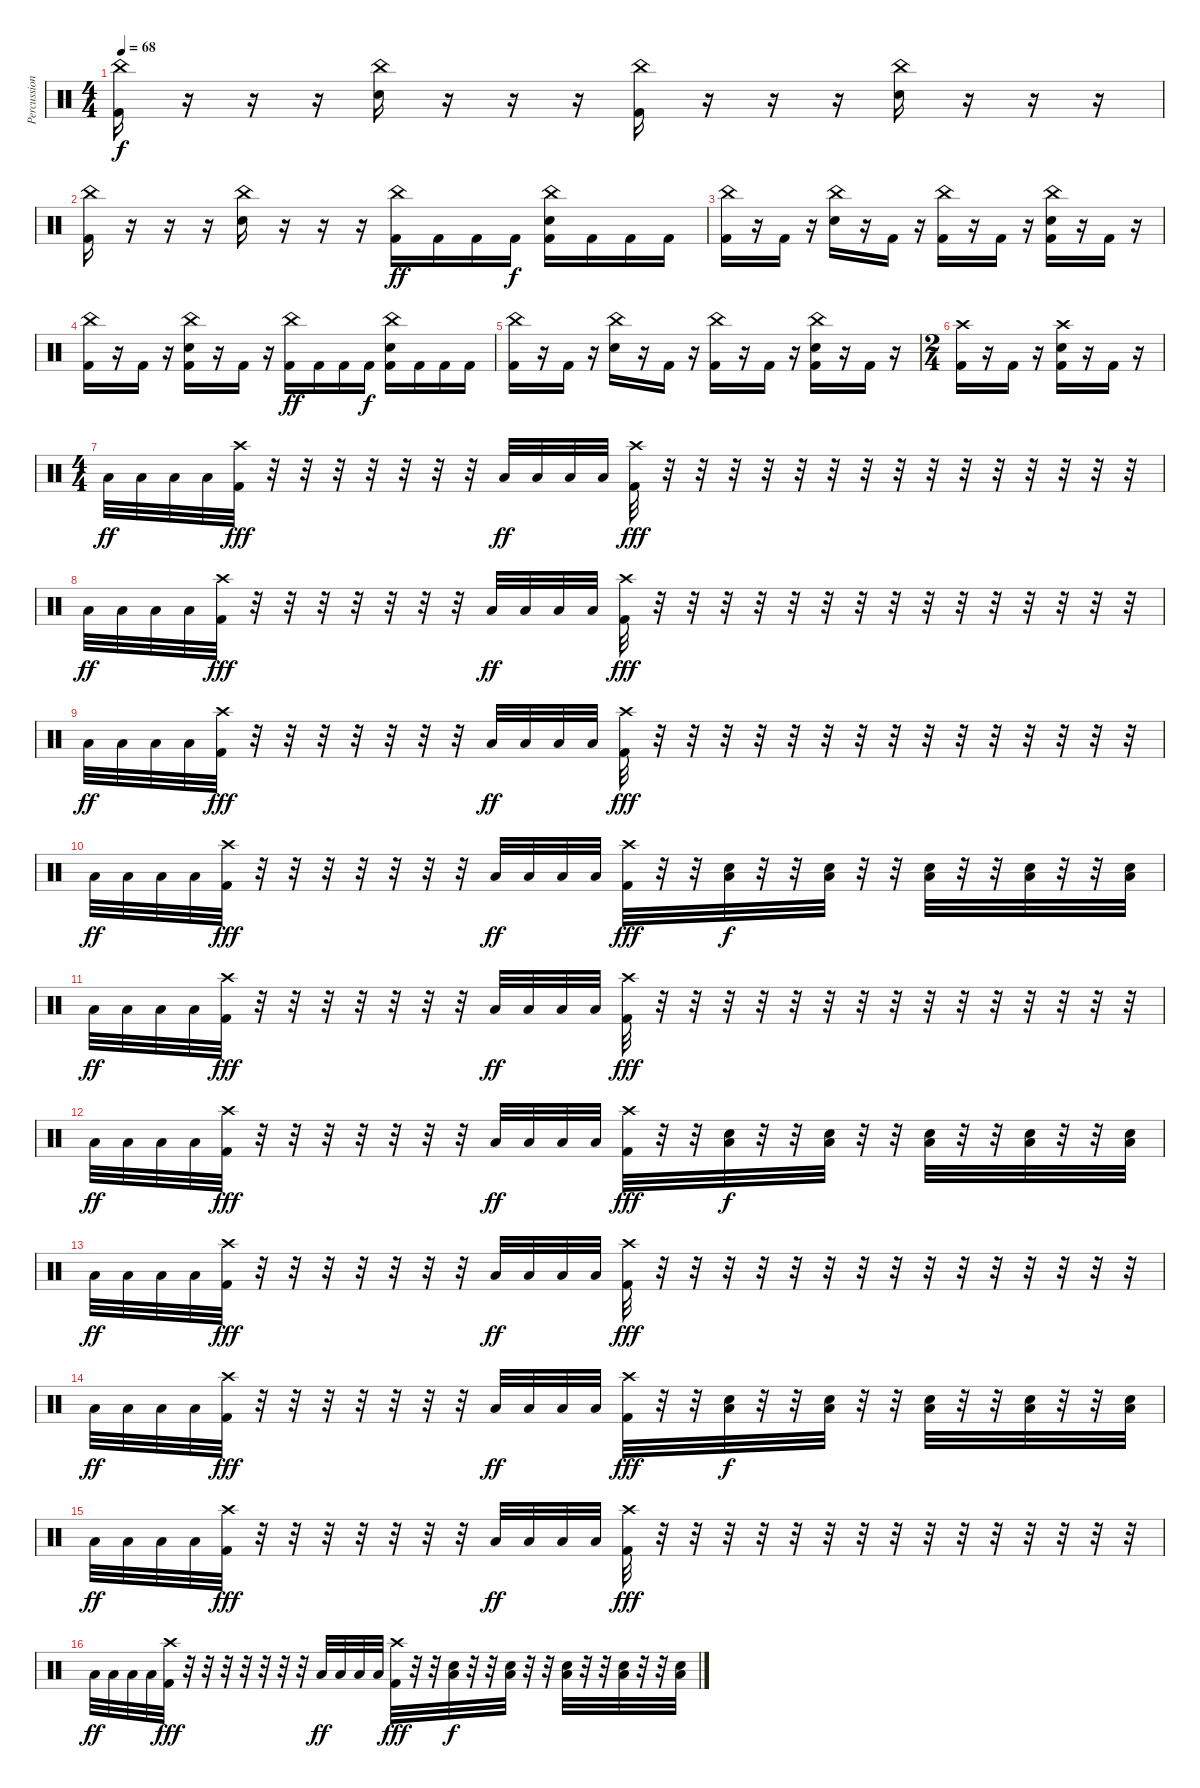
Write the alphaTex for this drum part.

\track ("Percussion" "Percussion") {instrument percussion}
\staff {score}
\articulation defaults
\ts (4 4)
\tempo 68
\clef neutral
\ks c
("China (hit)" "Kick (hit) 2").16{dy f} r.16 r.16 r.16 ("China (hit)" "Snare (hit) 2").16 r.16 r.16 r.16 ("China (hit)" "Kick (hit) 2").16 r.16 r.16 r.16 ("China (hit)" "Snare (hit) 2").16 r.16 r.16 r.16 |
("China (hit)" "Kick (hit) 2").16 r.16 r.16 r.16 ("China (hit)" "Snare (hit) 2").16 r.16 r.16 r.16 ("China (hit)" "Kick (hit) 2").16{dy ff} "Kick (hit) 2".16 "Kick (hit) 2".16 "Kick (hit) 2".16{dy f} ("China (hit)" "Snare (hit) 2" "Kick (hit) 2").16 "Kick (hit) 2".16 "Kick (hit) 2".16 "Kick (hit) 2".16 |
("China (hit)" "Kick (hit) 2").16 r.16 "Kick (hit) 2".16 r.16 ("China (hit)" "Snare (hit) 2").16 r.16 "Kick (hit) 2".16 r.16 ("China (hit)" "Kick (hit) 2").16 r.16 "Kick (hit) 2".16 r.16 ("China (hit)" "Snare (hit) 2" "Kick (hit) 2").16 r.16 "Kick (hit) 2".16 r.16 |
("China (hit)" "Kick (hit) 2").16 r.16 "Kick (hit) 2".16 r.16 ("China (hit)" "Snare (hit) 2" "Kick (hit) 2").16 r.16 "Kick (hit) 2".16 r.16 ("China (hit)" "Kick (hit) 2").16{dy ff} "Kick (hit) 2".16 "Kick (hit) 2".16 "Kick (hit) 2".16{dy f} ("China (hit)" "Snare (hit) 2" "Kick (hit) 2").16 "Kick (hit) 2".16 "Kick (hit) 2".16 "Kick (hit) 2".16 |
("China (hit)" "Kick (hit) 2").16 r.16 "Kick (hit) 2".16 r.16 ("China (hit)" "Snare (hit) 2").16 r.16 "Kick (hit) 2".16 r.16 ("China (hit)" "Kick (hit) 2").16 r.16 "Kick (hit) 2".16 r.16 ("China (hit)" "Snare (hit) 2" "Kick (hit) 2").16 r.16 "Kick (hit) 2".16 r.16 |
\ts (2 4)
("Crash high (hit)" "Kick (hit) 2").16 r.16 "Kick (hit) 2".16 r.16 ("Crash high (hit)" "Snare (hit) 2" "Kick (hit) 2").16 r.16 "Kick (hit) 2".16 r.16 |
\ts (4 4)
"Low Floor Tom (hit)".32{dy ff} "Low Floor Tom (hit)".32 "Low Floor Tom (hit)".32 "Low Floor Tom (hit)".32 ("Crash high (hit)" "Kick (hit) 2").32{dy fff} r.32 r.32 r.32 r.32 r.32 r.32 r.32 "Low Floor Tom (hit)".32{dy ff} "Low Floor Tom (hit)".32 "Low Floor Tom (hit)".32 "Low Floor Tom (hit)".32 ("Crash high (hit)" "Kick (hit) 2").32{dy fff} r.32 r.32 r.32 r.32 r.32 r.32 r.32 r.32 r.32 r.32 r.32 r.32 r.32 r.32 r.32 |
"Low Floor Tom (hit)".32{dy ff} "Low Floor Tom (hit)".32 "Low Floor Tom (hit)".32 "Low Floor Tom (hit)".32 ("Crash high (hit)" "Kick (hit) 2").32{dy fff} r.32 r.32 r.32 r.32 r.32 r.32 r.32 "Low Floor Tom (hit)".32{dy ff} "Low Floor Tom (hit)".32 "Low Floor Tom (hit)".32 "Low Floor Tom (hit)".32 ("Crash high (hit)" "Kick (hit) 2").32{dy fff} r.32 r.32 r.32 r.32 r.32 r.32 r.32 r.32 r.32 r.32 r.32 r.32 r.32 r.32 r.32 |
"Low Floor Tom (hit)".32{dy ff} "Low Floor Tom (hit)".32 "Low Floor Tom (hit)".32 "Low Floor Tom (hit)".32 ("Crash high (hit)" "Kick (hit) 2").32{dy fff} r.32 r.32 r.32 r.32 r.32 r.32 r.32 "Low Floor Tom (hit)".32{dy ff} "Low Floor Tom (hit)".32 "Low Floor Tom (hit)".32 "Low Floor Tom (hit)".32 ("Crash high (hit)" "Kick (hit) 2").32{dy fff} r.32 r.32 r.32 r.32 r.32 r.32 r.32 r.32 r.32 r.32 r.32 r.32 r.32 r.32 r.32 |
"Low Floor Tom (hit)".32{dy ff} "Low Floor Tom (hit)".32 "Low Floor Tom (hit)".32 "Low Floor Tom (hit)".32 ("Crash high (hit)" "Kick (hit) 2").32{dy fff} r.32 r.32 r.32 r.32 r.32 r.32 r.32 "Low Floor Tom (hit)".32{dy ff} "Low Floor Tom (hit)".32 "Low Floor Tom (hit)".32 "Low Floor Tom (hit)".32 ("Crash high (hit)" "Kick (hit) 2").32{dy fff} r.32 r.32 ("Snare (hit) 2" "Low Tom (hit)").32{dy f} r.32 r.32 ("Snare (hit) 2" "Low Tom (hit)").32 r.32 r.32 ("Snare (hit) 2" "Low Tom (hit)").32 r.32 r.32 ("Snare (hit) 2" "Low Tom (hit)").32 r.32 r.32 ("Snare (hit) 2" "Low Tom (hit)").32 |
"Low Floor Tom (hit)".32{dy ff} "Low Floor Tom (hit)".32 "Low Floor Tom (hit)".32 "Low Floor Tom (hit)".32 ("Crash high (hit)" "Kick (hit) 2").32{dy fff} r.32 r.32 r.32 r.32 r.32 r.32 r.32 "Low Floor Tom (hit)".32{dy ff} "Low Floor Tom (hit)".32 "Low Floor Tom (hit)".32 "Low Floor Tom (hit)".32 ("Crash high (hit)" "Kick (hit) 2").32{dy fff} r.32 r.32 r.32 r.32 r.32 r.32 r.32 r.32 r.32 r.32 r.32 r.32 r.32 r.32 r.32 |
"Low Floor Tom (hit)".32{dy ff} "Low Floor Tom (hit)".32 "Low Floor Tom (hit)".32 "Low Floor Tom (hit)".32 ("Crash high (hit)" "Kick (hit) 2").32{dy fff} r.32 r.32 r.32 r.32 r.32 r.32 r.32 "Low Floor Tom (hit)".32{dy ff} "Low Floor Tom (hit)".32 "Low Floor Tom (hit)".32 "Low Floor Tom (hit)".32 ("Crash high (hit)" "Kick (hit) 2").32{dy fff} r.32 r.32 ("Snare (hit) 2" "Low Tom (hit)").32{dy f} r.32 r.32 ("Snare (hit) 2" "Low Tom (hit)").32 r.32 r.32 ("Snare (hit) 2" "Low Tom (hit)").32 r.32 r.32 ("Snare (hit) 2" "Low Tom (hit)").32 r.32 r.32 ("Snare (hit) 2" "Low Tom (hit)").32 |
"Low Floor Tom (hit)".32{dy ff} "Low Floor Tom (hit)".32 "Low Floor Tom (hit)".32 "Low Floor Tom (hit)".32 ("Crash high (hit)" "Kick (hit) 2").32{dy fff} r.32 r.32 r.32 r.32 r.32 r.32 r.32 "Low Floor Tom (hit)".32{dy ff} "Low Floor Tom (hit)".32 "Low Floor Tom (hit)".32 "Low Floor Tom (hit)".32 ("Crash high (hit)" "Kick (hit) 2").32{dy fff} r.32 r.32 r.32 r.32 r.32 r.32 r.32 r.32 r.32 r.32 r.32 r.32 r.32 r.32 r.32 |
"Low Floor Tom (hit)".32{dy ff} "Low Floor Tom (hit)".32 "Low Floor Tom (hit)".32 "Low Floor Tom (hit)".32 ("Crash high (hit)" "Kick (hit) 2").32{dy fff} r.32 r.32 r.32 r.32 r.32 r.32 r.32 "Low Floor Tom (hit)".32{dy ff} "Low Floor Tom (hit)".32 "Low Floor Tom (hit)".32 "Low Floor Tom (hit)".32 ("Crash high (hit)" "Kick (hit) 2").32{dy fff} r.32 r.32 ("Snare (hit) 2" "Low Tom (hit)").32{dy f} r.32 r.32 ("Snare (hit) 2" "Low Tom (hit)").32 r.32 r.32 ("Snare (hit) 2" "Low Tom (hit)").32 r.32 r.32 ("Snare (hit) 2" "Low Tom (hit)").32 r.32 r.32 ("Snare (hit) 2" "Low Tom (hit)").32 |
"Low Floor Tom (hit)".32{dy ff} "Low Floor Tom (hit)".32 "Low Floor Tom (hit)".32 "Low Floor Tom (hit)".32 ("Crash high (hit)" "Kick (hit) 2").32{dy fff} r.32 r.32 r.32 r.32 r.32 r.32 r.32 "Low Floor Tom (hit)".32{dy ff} "Low Floor Tom (hit)".32 "Low Floor Tom (hit)".32 "Low Floor Tom (hit)".32 ("Crash high (hit)" "Kick (hit) 2").32{dy fff} r.32 r.32 r.32 r.32 r.32 r.32 r.32 r.32 r.32 r.32 r.32 r.32 r.32 r.32 r.32 |
"Low Floor Tom (hit)".32{dy ff} "Low Floor Tom (hit)".32 "Low Floor Tom (hit)".32 "Low Floor Tom (hit)".32 ("Crash high (hit)" "Kick (hit) 2").32{dy fff} r.32 r.32 r.32 r.32 r.32 r.32 r.32 "Low Floor Tom (hit)".32{dy ff} "Low Floor Tom (hit)".32 "Low Floor Tom (hit)".32 "Low Floor Tom (hit)".32 ("Crash high (hit)" "Kick (hit) 2").32{dy fff} r.32 r.32 ("Snare (hit) 2" "Low Tom (hit)").32{dy f} r.32 r.32 ("Snare (hit) 2" "Low Tom (hit)").32 r.32 r.32 ("Snare (hit) 2" "Low Tom (hit)").32 r.32 r.32 ("Snare (hit) 2" "Low Tom (hit)").32 r.32 r.32 ("Snare (hit) 2" "Low Tom (hit)").32
